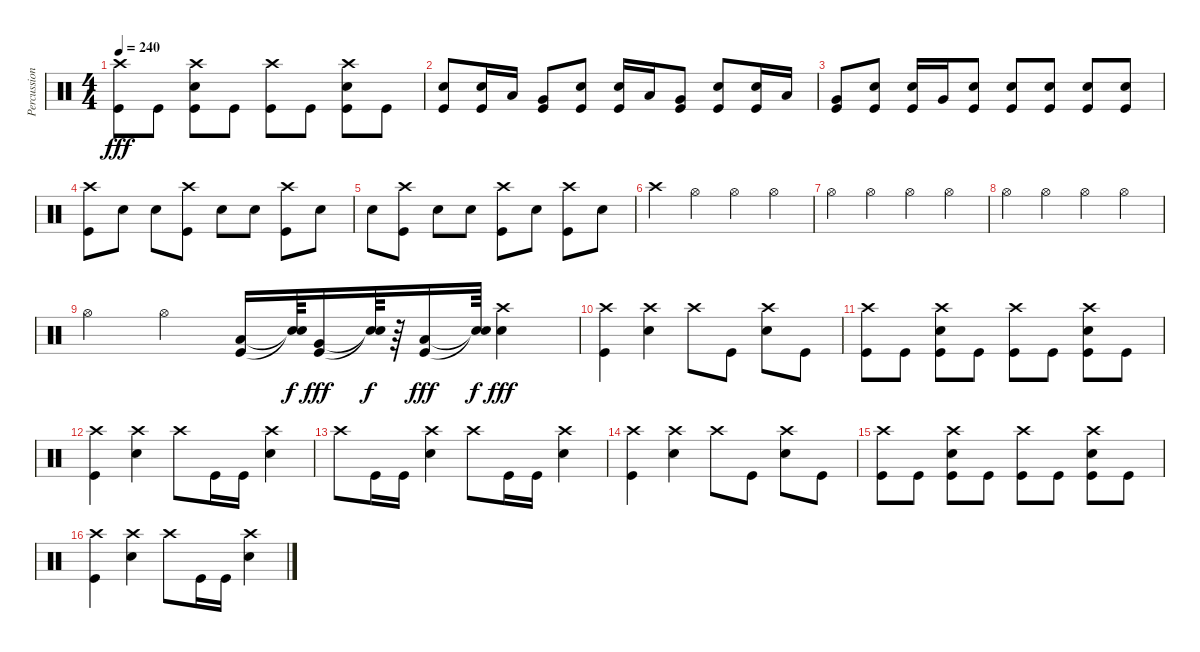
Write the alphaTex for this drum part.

\track ("Percussion" "Percussion") {instrument percussion}
\staff {score}
\articulation defaults
\ts (4 4)
\tempo 240
\clef neutral
\ks c
("Crash high (hit)" "Kick (hit)").8{dy fff} "Kick (hit)".8 ("Crash high (hit)" "Snare (hit) 2" "Kick (hit)").8 "Kick (hit)".8 ("Crash high (hit)" "Kick (hit)").8 "Kick (hit)".8 ("Crash high (hit)" "Snare (hit) 2" "Kick (hit)").8 "Kick (hit)".8 |
("Snare (hit) 2" "Kick (hit)").8 ("Snare (hit) 2" "Kick (hit)").16 "Low Tom (hit)".16 ("Very Low Tom (hit)" "Kick (hit)").8 ("Snare (hit) 2" "Kick (hit)").8 ("Snare (hit) 2" "Kick (hit)").16 "Low Tom (hit)".16 ("Very Low Tom (hit)" "Kick (hit)").8 ("Snare (hit) 2" "Kick (hit)").8 ("Snare (hit) 2" "Kick (hit)").16 "Low Tom (hit)".16 |
("Very Low Tom (hit)" "Kick (hit)").8 ("Snare (hit) 2" "Kick (hit)").8 ("Snare (hit) 2" "Kick (hit)").16 "Very Low Tom (hit)".16 ("Snare (hit) 2" "Kick (hit)").8 ("Snare (hit) 2" "Kick (hit)").8 ("Snare (hit) 2" "Kick (hit)").8 ("Snare (hit) 2" "Kick (hit)").8 ("Snare (hit) 2" "Kick (hit)").8 |
("Crash high (hit)" "Kick (hit)").8 "Snare (hit) 2".8 "Snare (hit) 2".8 ("Crash high (hit)" "Kick (hit)").8 "Snare (hit) 2".8 "Snare (hit) 2".8 ("Crash high (hit)" "Kick (hit)").8 "Snare (hit) 2".8 |
"Snare (hit) 2".8 ("Crash high (hit)" "Kick (hit)").8 "Snare (hit) 2".8 "Snare (hit) 2".8 ("Crash high (hit)" "Kick (hit)").8 "Snare (hit) 2".8 ("Crash high (hit)" "Kick (hit)").8 "Snare (hit) 2".8 |
"Crash high (hit)".4 "Hi-Hat (open)".4 "Hi-Hat (open)".4 "Hi-Hat (open)".4 |
"Hi-Hat (open)".4 "Hi-Hat (open)".4 "Hi-Hat (open)".4 "Hi-Hat (open)".4 |
"Hi-Hat (open)".4 "Hi-Hat (open)".4 "Hi-Hat (open)".4 "Hi-Hat (open)".4 |
"Hi-Hat (open)".4 "Hi-Hat (open)".4 ("Low Tom (hit)" "Kick (hit)").16 ("Snare (hit)"{t} "Snare (hit)"{t}).64{dy f} ("Very Low Tom (hit)" "Kick (hit)").16{dy fff} ("Snare (hit)"{t} "Snare (hit)"{t}).64{dy f} r.64 ("Low Floor Tom (hit)" "Kick (hit)").16{dy fff} ("Snare (hit)"{t} "Snare (hit)"{t}).64{dy f} ("Crash high (hit)" "Snare (hit) 2").4{dy fff} |
("Crash high (hit)" "Kick (hit)").4 ("Crash high (hit)" "Snare (hit) 2").4 "Crash high (hit)".8 "Kick (hit)".8 ("Crash high (hit)" "Snare (hit) 2").8 "Kick (hit)".8 |
("Crash high (hit)" "Kick (hit)").8 "Kick (hit)".8 ("Crash high (hit)" "Snare (hit) 2" "Kick (hit)").8 "Kick (hit)".8 ("Crash high (hit)" "Kick (hit)").8 "Kick (hit)".8 ("Crash high (hit)" "Snare (hit) 2" "Kick (hit)").8 "Kick (hit)".8 |
("Crash high (hit)" "Kick (hit)").4 ("Crash high (hit)" "Snare (hit) 2").4 "Crash high (hit)".8 "Kick (hit)".16 "Kick (hit)".16 ("Crash high (hit)" "Snare (hit) 2").4 |
"Crash high (hit)".8 "Kick (hit)".16 "Kick (hit)".16 ("Crash high (hit)" "Snare (hit) 2").4 "Crash high (hit)".8 "Kick (hit)".16 "Kick (hit)".16 ("Crash high (hit)" "Snare (hit) 2").4 |
("Crash high (hit)" "Kick (hit)").4 ("Crash high (hit)" "Snare (hit) 2").4 "Crash high (hit)".8 "Kick (hit)".8 ("Crash high (hit)" "Snare (hit) 2").8 "Kick (hit)".8 |
("Crash high (hit)" "Kick (hit)").8 "Kick (hit)".8 ("Crash high (hit)" "Snare (hit) 2" "Kick (hit)").8 "Kick (hit)".8 ("Crash high (hit)" "Kick (hit)").8 "Kick (hit)".8 ("Crash high (hit)" "Snare (hit) 2" "Kick (hit)").8 "Kick (hit)".8 |
("Crash high (hit)" "Kick (hit)").4 ("Crash high (hit)" "Snare (hit) 2").4 "Crash high (hit)".8 "Kick (hit)".16 "Kick (hit)".16 ("Crash high (hit)" "Snare (hit) 2").4
